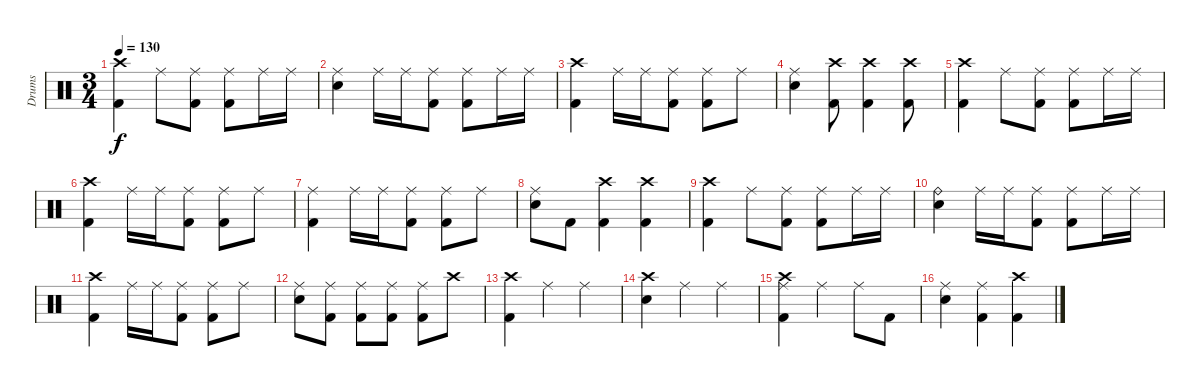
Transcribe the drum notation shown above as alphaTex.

\track ("Drums" "Drums") {instrument percussion}
\staff {score}
\articulation defaults
\ts (3 4)
\tempo 130
\clef neutral
\ks c
("Crash high (hit)" "Kick (hit) 2").4{dy f} "Ride (middle)".8 ("Ride (middle)" "Kick (hit) 2").8 ("Ride (middle)" "Kick (hit) 2").8 "Ride (middle)".16 "Ride (middle)".16 |
("Ride (middle)" "Snare (hit) 2").4 "Ride (middle)".16 "Ride (middle)".16 ("Ride (middle)" "Kick (hit) 2").8 ("Ride (middle)" "Kick (hit) 2").8 "Ride (middle)".16 "Ride (middle)".16 |
("Crash high (hit)" "Kick (hit) 2").4 "Ride (middle)".16 "Ride (middle)".16 ("Ride (middle)" "Kick (hit) 2").8 ("Ride (middle)" "Kick (hit) 2").8 "Ride (middle)".8 |
("Ride (middle)" "Snare (hit) 2").4 ("Crash high (hit)" "Kick (hit) 2").8 ("Crash high (hit)" "Kick (hit) 2").4 ("Crash high (hit)" "Kick (hit) 2").8 |
("Crash high (hit)" "Kick (hit) 2").4 "Ride (middle)".8 ("Ride (middle)" "Kick (hit) 2").8 ("Ride (middle)" "Kick (hit) 2").8 "Ride (middle)".16 "Ride (middle)".16 |
("Crash high (hit)" "Kick (hit) 2").4 "Ride (middle)".16 "Ride (middle)".16 ("Ride (middle)" "Kick (hit) 2").8 ("Ride (middle)" "Kick (hit) 2").8 "Ride (middle)".8 |
("Ride (middle)" "Kick (hit) 2").4 "Ride (middle)".16 "Ride (middle)".16 ("Ride (middle)" "Kick (hit) 2").8 ("Ride (middle)" "Kick (hit) 2").8 "Ride (middle)".8 |
("Ride (middle)" "Snare (hit) 2").8 "Kick (hit) 2".8 ("Crash high (hit)" "Kick (hit) 2").4 ("Crash high (hit)" "Kick (hit) 2").4 |
("Crash high (hit)" "Kick (hit) 2").4 "Ride (middle)".8 ("Ride (middle)" "Kick (hit) 2").8 ("Ride (middle)" "Kick (hit) 2").8 "Ride (middle)".16 "Ride (middle)".16 |
("Ride (bell)" "Snare (hit) 2").4 "Ride (middle)".16 "Ride (middle)".16 ("Ride (middle)" "Kick (hit) 2").8 ("Ride (middle)" "Kick (hit) 2").8 "Ride (middle)".16 "Ride (middle)".16 |
("Crash high (hit)" "Kick (hit) 2").4 "Ride (middle)".16 "Ride (middle)".16 ("Ride (middle)" "Kick (hit) 2").8 ("Ride (middle)" "Kick (hit) 2").8 "Ride (middle)".8 |
("Ride (middle)" "Snare (hit) 2").8 ("Ride (middle)" "Kick (hit) 2").8 ("Ride (middle)" "Kick (hit) 2").8 ("Ride (middle)" "Kick (hit) 2").8 ("Ride (middle)" "Kick (hit) 2").8 "Crash high (hit)".8 |
("Crash high (hit)" "Kick (hit) 2").4 "Ride (middle)".4 "Ride (middle)".4 |
("Crash high (hit)" "Snare (hit) 2").4 "Ride (middle)".4 "Ride (middle)".4 |
("Crash high (hit)" "Ride (middle)" "Kick (hit) 2").4 "Ride (middle)".4 "Ride (middle)".8 "Kick (hit) 2".8 |
("Ride (middle)" "Snare (hit) 2").4 ("Ride (middle)" "Kick (hit) 2").4 ("Crash high (hit)" "Kick (hit) 2").4
